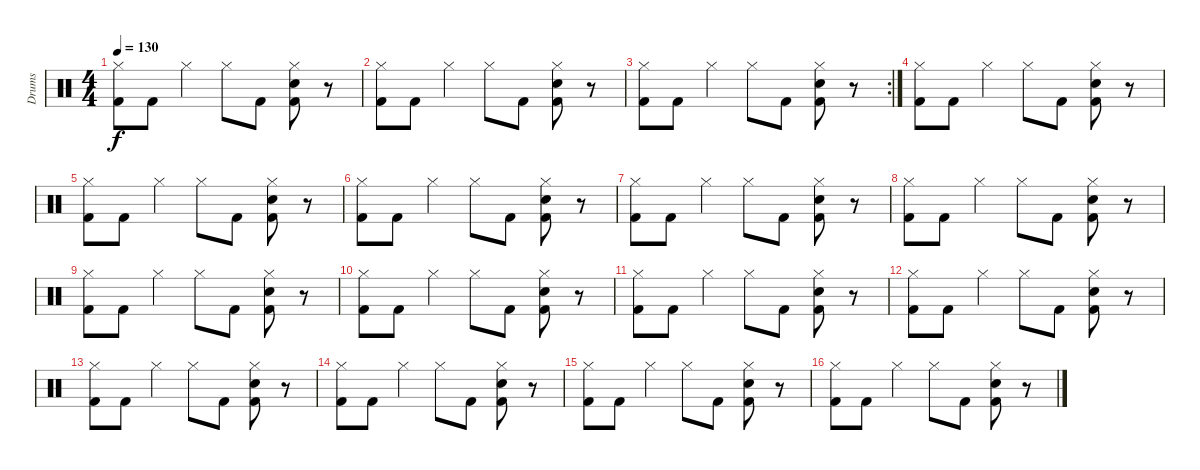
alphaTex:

\track ("Drums" "Drums") {instrument percussion}
\staff {score}
\articulation defaults
\ts (4 4)
\tempo 130
\clef neutral
\ks c
("Hi-Hat (closed)" "Kick (hit) 2").8{dy f} "Kick (hit) 2".8 "Hi-Hat (closed)".4 "Hi-Hat (closed)".8 "Kick (hit) 2".8 ("Hi-Hat (closed)" "Snare (hit) 2" "Kick (hit) 2").8 r.8 |
("Hi-Hat (closed)" "Kick (hit) 2").8 "Kick (hit) 2".8 "Hi-Hat (closed)".4 "Hi-Hat (closed)".8 "Kick (hit) 2".8 ("Hi-Hat (closed)" "Snare (hit) 2" "Kick (hit) 2").8 r.8 |
\rc 2
("Hi-Hat (closed)" "Kick (hit) 2").8 "Kick (hit) 2".8 "Hi-Hat (closed)".4 "Hi-Hat (closed)".8 "Kick (hit) 2".8 ("Hi-Hat (closed)" "Snare (hit) 2" "Kick (hit) 2").8 r.8 |
("Hi-Hat (closed)" "Kick (hit) 2").8 "Kick (hit) 2".8 "Hi-Hat (closed)".4 "Hi-Hat (closed)".8 "Kick (hit) 2".8 ("Hi-Hat (closed)" "Snare (hit) 2" "Kick (hit) 2").8 r.8 |
("Hi-Hat (closed)" "Kick (hit) 2").8 "Kick (hit) 2".8 "Hi-Hat (closed)".4 "Hi-Hat (closed)".8 "Kick (hit) 2".8 ("Hi-Hat (closed)" "Snare (hit) 2" "Kick (hit) 2").8 r.8 |
("Hi-Hat (closed)" "Kick (hit) 2").8 "Kick (hit) 2".8 "Hi-Hat (closed)".4 "Hi-Hat (closed)".8 "Kick (hit) 2".8 ("Hi-Hat (closed)" "Snare (hit) 2" "Kick (hit) 2").8 r.8 |
("Hi-Hat (closed)" "Kick (hit) 2").8 "Kick (hit) 2".8 "Hi-Hat (closed)".4 "Hi-Hat (closed)".8 "Kick (hit) 2".8 ("Hi-Hat (closed)" "Snare (hit) 2" "Kick (hit) 2").8 r.8 |
("Hi-Hat (closed)" "Kick (hit) 2").8 "Kick (hit) 2".8 "Hi-Hat (closed)".4 "Hi-Hat (closed)".8 "Kick (hit) 2".8 ("Hi-Hat (closed)" "Snare (hit) 2" "Kick (hit) 2").8 r.8 |
("Hi-Hat (closed)" "Kick (hit) 2").8 "Kick (hit) 2".8 "Hi-Hat (closed)".4 "Hi-Hat (closed)".8 "Kick (hit) 2".8 ("Hi-Hat (closed)" "Snare (hit) 2" "Kick (hit) 2").8 r.8 |
("Hi-Hat (closed)" "Kick (hit) 2").8 "Kick (hit) 2".8 "Hi-Hat (closed)".4 "Hi-Hat (closed)".8 "Kick (hit) 2".8 ("Hi-Hat (closed)" "Snare (hit) 2" "Kick (hit) 2").8 r.8 |
("Hi-Hat (closed)" "Kick (hit) 2").8 "Kick (hit) 2".8 "Hi-Hat (closed)".4 "Hi-Hat (closed)".8 "Kick (hit) 2".8 ("Hi-Hat (closed)" "Snare (hit) 2" "Kick (hit) 2").8 r.8 |
("Hi-Hat (closed)" "Kick (hit) 2").8{volume 12} "Kick (hit) 2".8 "Hi-Hat (closed)".4 "Hi-Hat (closed)".8 "Kick (hit) 2".8 ("Hi-Hat (closed)" "Snare (hit) 2" "Kick (hit) 2").8 r.8 |
("Hi-Hat (closed)" "Kick (hit) 2").8{volume 11} "Kick (hit) 2".8 "Hi-Hat (closed)".4 "Hi-Hat (closed)".8 "Kick (hit) 2".8 ("Hi-Hat (closed)" "Snare (hit) 2" "Kick (hit) 2").8 r.8 |
("Hi-Hat (closed)" "Kick (hit) 2").8{volume 10} "Kick (hit) 2".8 "Hi-Hat (closed)".4 "Hi-Hat (closed)".8 "Kick (hit) 2".8 ("Hi-Hat (closed)" "Snare (hit) 2" "Kick (hit) 2").8 r.8 |
("Hi-Hat (closed)" "Kick (hit) 2").8{volume 9} "Kick (hit) 2".8 "Hi-Hat (closed)".4 "Hi-Hat (closed)".8 "Kick (hit) 2".8 ("Hi-Hat (closed)" "Snare (hit) 2" "Kick (hit) 2").8 r.8 |
("Hi-Hat (closed)" "Kick (hit) 2").8{volume 8} "Kick (hit) 2".8 "Hi-Hat (closed)".4 "Hi-Hat (closed)".8 "Kick (hit) 2".8 ("Hi-Hat (closed)" "Snare (hit) 2" "Kick (hit) 2").8 r.8
